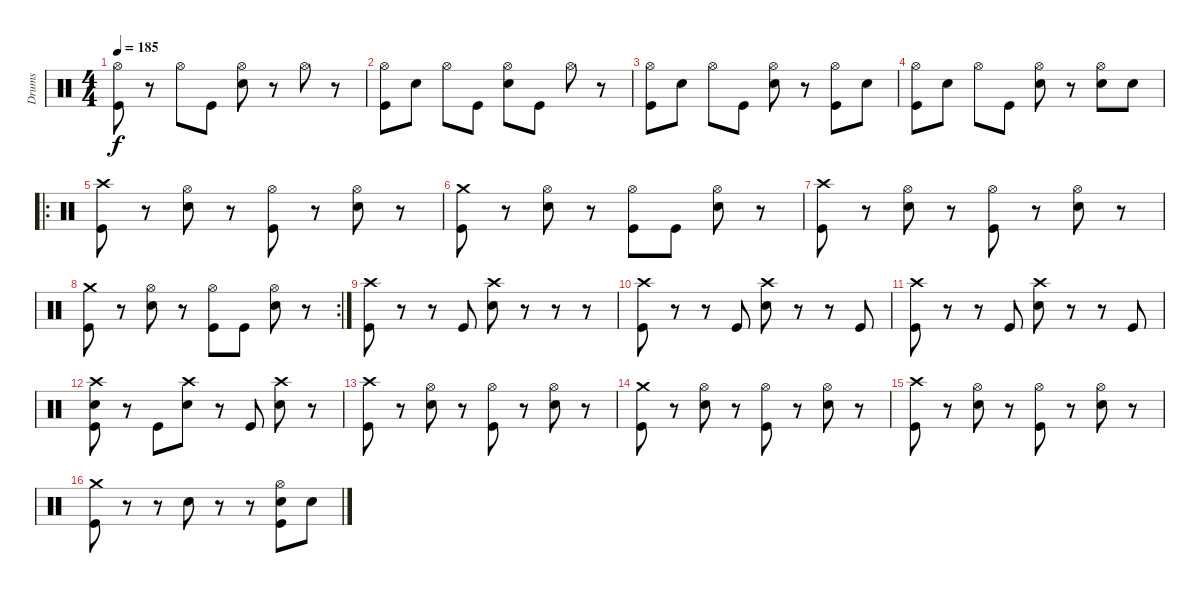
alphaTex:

\track ("Drums" "Drums") {instrument percussion}
\staff {score}
\articulation defaults
\ts (4 4)
\tempo 185
\clef neutral
\ks c
("Hi-Hat (open)" "Kick (hit)").8{dy f} r.8 "Hi-Hat (open)".8 "Kick (hit)".8 ("Hi-Hat (open)" "Snare (hit) 2").8 r.8 "Hi-Hat (open)".8 r.8 |
("Hi-Hat (open)" "Kick (hit)").8 "Snare (hit) 2".8 "Hi-Hat (open)".8 "Kick (hit)".8 ("Hi-Hat (open)" "Snare (hit) 2").8 "Kick (hit)".8 "Hi-Hat (open)".8 r.8 |
("Hi-Hat (open)" "Kick (hit)").8 "Snare (hit) 2".8 "Hi-Hat (open)".8 "Kick (hit)".8 ("Hi-Hat (open)" "Snare (hit) 2").8 r.8 ("Hi-Hat (open)" "Kick (hit)").8 "Snare (hit) 2".8 |
("Hi-Hat (open)" "Kick (hit)").8 "Snare (hit) 2".8 "Hi-Hat (open)".8 "Kick (hit)".8 ("Hi-Hat (open)" "Snare (hit) 2").8 r.8 ("Hi-Hat (open)" "Snare (hit) 2").8 "Snare (hit) 2".8 |
\ro
("Crash high (hit)" "Kick (hit)").8 r.8 ("Hi-Hat (open)" "Snare (hit) 2").8 r.8 ("Hi-Hat (open)" "Kick (hit)").8 r.8 ("Hi-Hat (open)" "Snare (hit) 2").8 r.8 |
("Crash medium (hit)" "Kick (hit)").8 r.8 ("Hi-Hat (open)" "Snare (hit) 2").8 r.8 ("Hi-Hat (open)" "Kick (hit)").8 "Kick (hit)".8 ("Hi-Hat (open)" "Snare (hit) 2").8 r.8 |
("Crash high (hit)" "Kick (hit)").8 r.8 ("Hi-Hat (open)" "Snare (hit) 2").8 r.8 ("Hi-Hat (open)" "Kick (hit)").8 r.8 ("Hi-Hat (open)" "Snare (hit) 2").8 r.8 |
\rc 2
("Crash medium (hit)" "Kick (hit)").8 r.8 ("Hi-Hat (open)" "Snare (hit) 2").8 r.8 ("Hi-Hat (open)" "Kick (hit)").8 "Kick (hit)".8 ("Hi-Hat (open)" "Snare (hit) 2").8 r.8 |
("Crash high (hit)" "Kick (hit)").8 r.8 r.8 "Kick (hit)".8 ("Crash high (hit)" "Snare (hit) 2").8 r.8 r.8 r.8 |
("Crash high (hit)" "Kick (hit)").8 r.8 r.8 "Kick (hit)".8 ("Crash high (hit)" "Snare (hit) 2").8 r.8 r.8 "Kick (hit)".8 |
("Crash high (hit)" "Kick (hit)").8 r.8 r.8 "Kick (hit)".8 ("Crash high (hit)" "Snare (hit) 2").8 r.8 r.8 "Kick (hit)".8 |
("Crash high (hit)" "Snare (hit) 2" "Kick (hit)").8 r.8 "Kick (hit)".8 ("Crash high (hit)" "Snare (hit) 2").8 r.8 "Kick (hit)".8 ("Crash high (hit)" "Snare (hit) 2").8 r.8 |
("Crash high (hit)" "Kick (hit)").8 r.8 ("Hi-Hat (open)" "Snare (hit) 2").8 r.8 ("Hi-Hat (open)" "Kick (hit)").8 r.8 ("Hi-Hat (open)" "Snare (hit) 2").8 r.8 |
("Crash medium (hit)" "Kick (hit)").8 r.8 ("Hi-Hat (open)" "Snare (hit) 2").8 r.8 ("Hi-Hat (open)" "Kick (hit)").8 r.8 ("Hi-Hat (open)" "Snare (hit) 2").8 r.8 |
("Crash high (hit)" "Kick (hit)").8 r.8 ("Hi-Hat (open)" "Snare (hit) 2").8 r.8 ("Hi-Hat (open)" "Kick (hit)").8 r.8 ("Hi-Hat (open)" "Snare (hit) 2").8 r.8 |
("Crash medium (hit)" "Kick (hit)").8 r.8 r.8 "Snare (hit) 2".8 r.8 r.8 ("Hi-Hat (open)" "Snare (hit) 2" "Kick (hit)").8 "Snare (hit) 2".8
